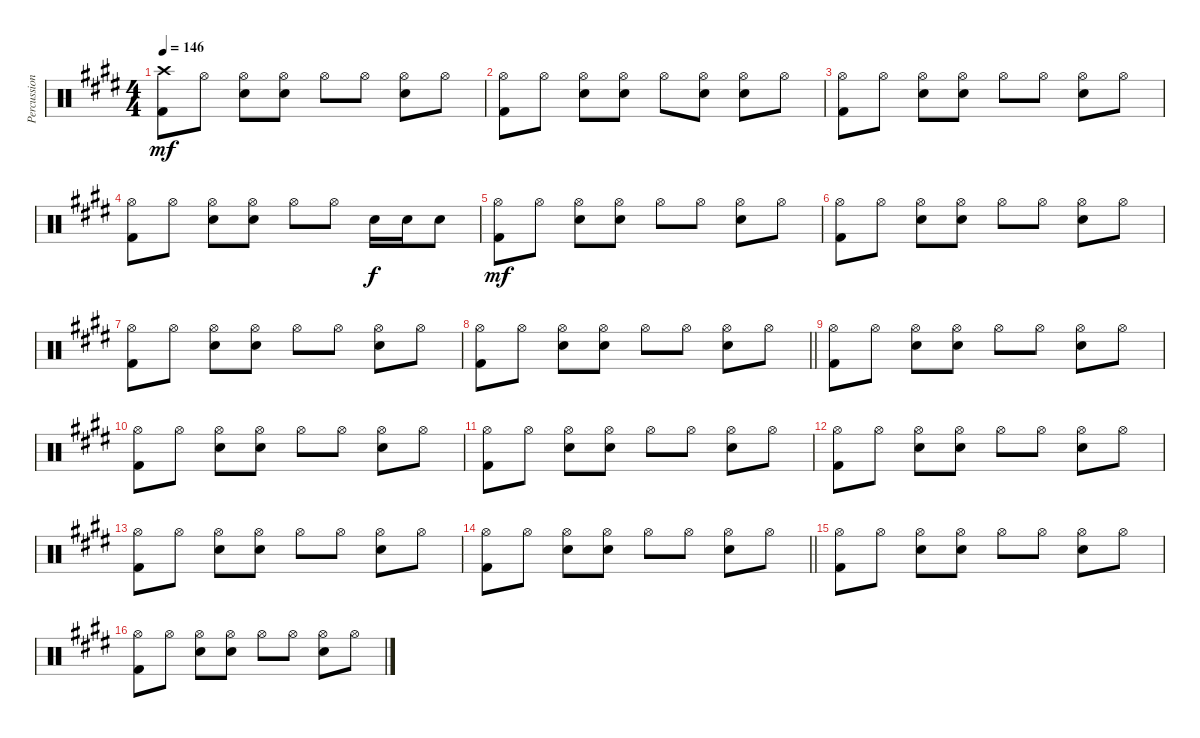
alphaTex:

\track ("Percussion" "Percussion") {instrument percussion}
\staff {score}
\articulation defaults
\ts (4 4)
\tempo 146
\clef neutral
\ks e
("Crash high (hit)" "Kick (hit) 2").8{dy mf} "Hi-Hat (open)".8 ("Hi-Hat (open)" "Snare (hit) 2").8 ("Hi-Hat (open)" "Snare (hit) 2").8 "Hi-Hat (open)".8 "Hi-Hat (open)".8 ("Hi-Hat (open)" "Snare (hit) 2").8 "Hi-Hat (open)".8 |
("Hi-Hat (open)" "Kick (hit) 2").8 "Hi-Hat (open)".8 ("Hi-Hat (open)" "Snare (hit) 2").8 ("Hi-Hat (open)" "Snare (hit) 2").8 "Hi-Hat (open)".8 ("Hi-Hat (open)" "Snare (hit) 2").8 ("Hi-Hat (open)" "Snare (hit) 2").8 "Hi-Hat (open)".8 |
("Hi-Hat (open)" "Kick (hit) 2").8 "Hi-Hat (open)".8 ("Hi-Hat (open)" "Snare (hit) 2").8 ("Hi-Hat (open)" "Snare (hit) 2").8 "Hi-Hat (open)".8 "Hi-Hat (open)".8 ("Hi-Hat (open)" "Snare (hit) 2").8 "Hi-Hat (open)".8 |
("Hi-Hat (open)" "Kick (hit) 2").8 "Hi-Hat (open)".8 ("Hi-Hat (open)" "Snare (hit) 2").8 ("Hi-Hat (open)" "Snare (hit) 2").8 "Hi-Hat (open)".8 "Hi-Hat (open)".8 "Snare (hit) 2".16{dy f} "Snare (hit) 2".16 "Snare (hit) 2".8 |
("Hi-Hat (open)" "Kick (hit) 2").8{dy mf} "Hi-Hat (open)".8 ("Hi-Hat (open)" "Snare (hit) 2").8 ("Hi-Hat (open)" "Snare (hit) 2").8 "Hi-Hat (open)".8 "Hi-Hat (open)".8 ("Hi-Hat (open)" "Snare (hit) 2").8 "Hi-Hat (open)".8 |
("Hi-Hat (open)" "Kick (hit) 2").8 "Hi-Hat (open)".8 ("Hi-Hat (open)" "Snare (hit) 2").8 ("Hi-Hat (open)" "Snare (hit) 2").8 "Hi-Hat (open)".8 "Hi-Hat (open)".8 ("Hi-Hat (open)" "Snare (hit) 2").8 "Hi-Hat (open)".8 |
("Hi-Hat (open)" "Kick (hit) 2").8 "Hi-Hat (open)".8 ("Hi-Hat (open)" "Snare (hit) 2").8 ("Hi-Hat (open)" "Snare (hit) 2").8 "Hi-Hat (open)".8 "Hi-Hat (open)".8 ("Hi-Hat (open)" "Snare (hit) 2").8 "Hi-Hat (open)".8 |
\barLineRight lightlight
("Hi-Hat (open)" "Kick (hit) 2").8 "Hi-Hat (open)".8 ("Hi-Hat (open)" "Snare (hit) 2").8 ("Hi-Hat (open)" "Snare (hit) 2").8 "Hi-Hat (open)".8 "Hi-Hat (open)".8 ("Hi-Hat (open)" "Snare (hit) 2").8 "Hi-Hat (open)".8 |
("Hi-Hat (open)" "Kick (hit) 2").8 "Hi-Hat (open)".8 ("Hi-Hat (open)" "Snare (hit) 2").8 ("Hi-Hat (open)" "Snare (hit) 2").8 "Hi-Hat (open)".8 "Hi-Hat (open)".8 ("Hi-Hat (open)" "Snare (hit) 2").8 "Hi-Hat (open)".8 |
("Hi-Hat (open)" "Kick (hit) 2").8 "Hi-Hat (open)".8 ("Hi-Hat (open)" "Snare (hit) 2").8 ("Hi-Hat (open)" "Snare (hit) 2").8 "Hi-Hat (open)".8 "Hi-Hat (open)".8 ("Hi-Hat (open)" "Snare (hit) 2").8 "Hi-Hat (open)".8 |
("Hi-Hat (open)" "Kick (hit) 2").8 "Hi-Hat (open)".8 ("Hi-Hat (open)" "Snare (hit) 2").8 ("Hi-Hat (open)" "Snare (hit) 2").8 "Hi-Hat (open)".8 "Hi-Hat (open)".8 ("Hi-Hat (open)" "Snare (hit) 2").8 "Hi-Hat (open)".8 |
("Hi-Hat (open)" "Kick (hit) 2").8 "Hi-Hat (open)".8 ("Hi-Hat (open)" "Snare (hit) 2").8 ("Hi-Hat (open)" "Snare (hit) 2").8 "Hi-Hat (open)".8 "Hi-Hat (open)".8 ("Hi-Hat (open)" "Snare (hit) 2").8 "Hi-Hat (open)".8 |
("Hi-Hat (open)" "Kick (hit) 2").8 "Hi-Hat (open)".8 ("Hi-Hat (open)" "Snare (hit) 2").8 ("Hi-Hat (open)" "Snare (hit) 2").8 "Hi-Hat (open)".8 "Hi-Hat (open)".8 ("Hi-Hat (open)" "Snare (hit) 2").8 "Hi-Hat (open)".8 |
\barLineRight lightlight
("Hi-Hat (open)" "Kick (hit) 2").8 "Hi-Hat (open)".8 ("Hi-Hat (open)" "Snare (hit) 2").8 ("Hi-Hat (open)" "Snare (hit) 2").8 "Hi-Hat (open)".8 "Hi-Hat (open)".8 ("Hi-Hat (open)" "Snare (hit) 2").8 "Hi-Hat (open)".8 |
("Hi-Hat (open)" "Kick (hit) 2").8 "Hi-Hat (open)".8 ("Hi-Hat (open)" "Snare (hit) 2").8 ("Hi-Hat (open)" "Snare (hit) 2").8 "Hi-Hat (open)".8 "Hi-Hat (open)".8 ("Hi-Hat (open)" "Snare (hit) 2").8 "Hi-Hat (open)".8 |
("Hi-Hat (open)" "Kick (hit) 2").8 "Hi-Hat (open)".8 ("Hi-Hat (open)" "Snare (hit) 2").8 ("Hi-Hat (open)" "Snare (hit) 2").8 "Hi-Hat (open)".8 "Hi-Hat (open)".8 ("Hi-Hat (open)" "Snare (hit) 2").8 "Hi-Hat (open)".8
